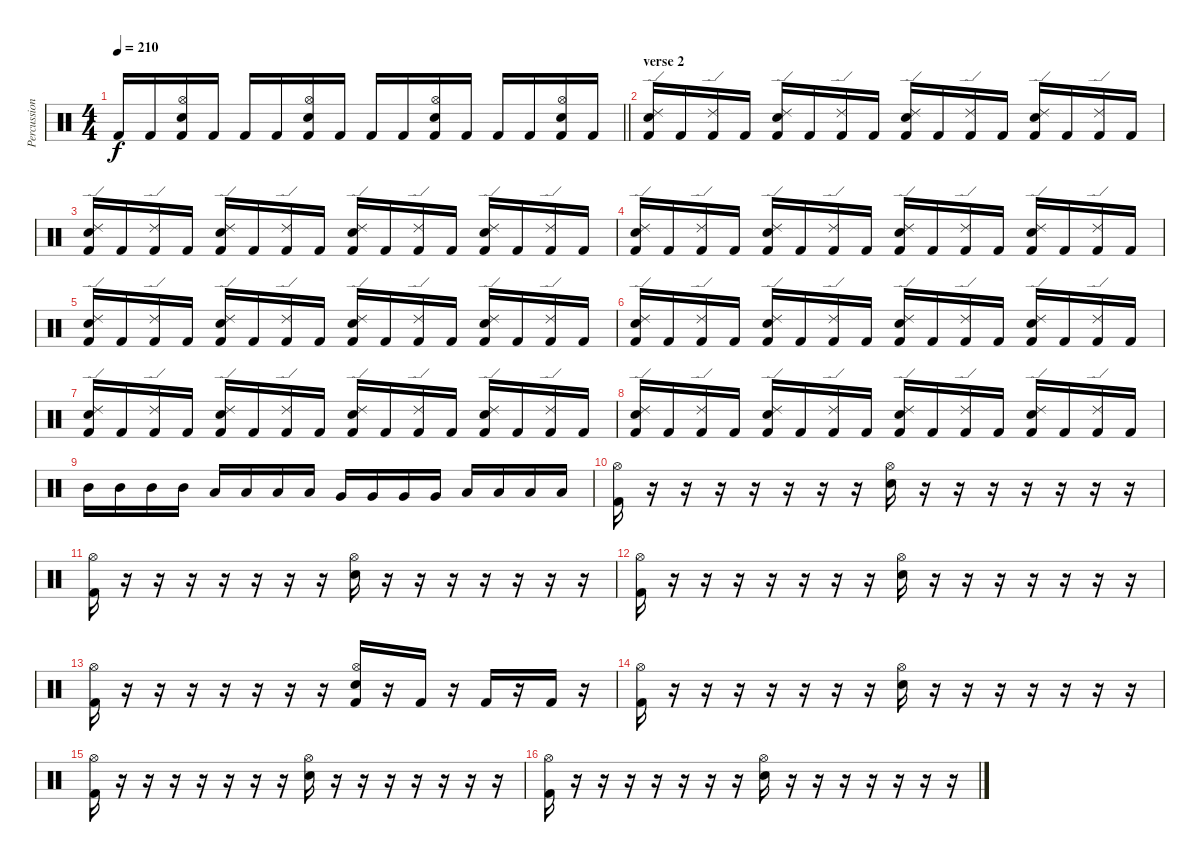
\track ("Percussion" "Percussion") {instrument percussion}
\staff {score}
\articulation defaults
\ts (4 4)
\tempo 210
\clef neutral
\barLineRight lightlight
\ks c "Kick (hit) 2".16{dy f} "Kick (hit) 2".16
("Hi-Hat (open)" "Snare (hit) 2" "Kick (hit) 2").16 "Kick (hit) 2".16 "Kick (hit) 2".16 "Kick (hit) 2".16 ("Hi-Hat (open)" "Snare (hit) 2" "Kick (hit) 2").16 "Kick (hit) 2".16 "Kick (hit) 2".16 "Kick (hit) 2".16 ("Hi-Hat (open)" "Snare (hit) 2" "Kick (hit) 2").16 "Kick (hit) 2".16 "Kick (hit) 2".16 "Kick (hit) 2".16 ("Hi-Hat (open)" "Snare (hit) 2" "Kick (hit) 2").16 "Kick (hit) 2".16 |
\section ("" "verse 2")
("Ride (edge) 2" "Snare (hit) 2" "Kick (hit) 2").16 "Kick (hit) 2".16 ("Ride (edge) 2" "Kick (hit) 2").16 "Kick (hit) 2".16 ("Ride (edge) 2" "Snare (hit) 2" "Kick (hit) 2").16 "Kick (hit) 2".16 ("Ride (edge) 2" "Kick (hit) 2").16 "Kick (hit) 2".16 ("Ride (edge) 2" "Snare (hit) 2" "Kick (hit) 2").16 "Kick (hit) 2".16 ("Ride (edge) 2" "Kick (hit) 2").16 "Kick (hit) 2".16 ("Ride (edge) 2" "Snare (hit) 2" "Kick (hit) 2").16 "Kick (hit) 2".16 ("Ride (edge) 2" "Kick (hit) 2").16 "Kick (hit) 2".16 |
("Ride (edge) 2" "Snare (hit) 2" "Kick (hit) 2").16 "Kick (hit) 2".16 ("Ride (edge) 2" "Kick (hit) 2").16 "Kick (hit) 2".16 ("Ride (edge) 2" "Snare (hit) 2" "Kick (hit) 2").16 "Kick (hit) 2".16 ("Ride (edge) 2" "Kick (hit) 2").16 "Kick (hit) 2".16 ("Ride (edge) 2" "Snare (hit) 2" "Kick (hit) 2").16 "Kick (hit) 2".16 ("Ride (edge) 2" "Kick (hit) 2").16 "Kick (hit) 2".16 ("Ride (edge) 2" "Snare (hit) 2" "Kick (hit) 2").16 "Kick (hit) 2".16 ("Ride (edge) 2" "Kick (hit) 2").16 "Kick (hit) 2".16 |
("Ride (edge) 2" "Snare (hit) 2" "Kick (hit) 2").16 "Kick (hit) 2".16 ("Ride (edge) 2" "Kick (hit) 2").16 "Kick (hit) 2".16 ("Ride (edge) 2" "Snare (hit) 2" "Kick (hit) 2").16 "Kick (hit) 2".16 ("Ride (edge) 2" "Kick (hit) 2").16 "Kick (hit) 2".16 ("Ride (edge) 2" "Snare (hit) 2" "Kick (hit) 2").16 "Kick (hit) 2".16 ("Ride (edge) 2" "Kick (hit) 2").16 "Kick (hit) 2".16 ("Ride (edge) 2" "Snare (hit) 2" "Kick (hit) 2").16 "Kick (hit) 2".16 ("Ride (edge) 2" "Kick (hit) 2").16 "Kick (hit) 2".16 |
("Ride (edge) 2" "Snare (hit) 2" "Kick (hit) 2").16 "Kick (hit) 2".16 ("Ride (edge) 2" "Kick (hit) 2").16 "Kick (hit) 2".16 ("Ride (edge) 2" "Snare (hit) 2" "Kick (hit) 2").16 "Kick (hit) 2".16 ("Ride (edge) 2" "Kick (hit) 2").16 "Kick (hit) 2".16 ("Ride (edge) 2" "Snare (hit) 2" "Kick (hit) 2").16 "Kick (hit) 2".16 ("Ride (edge) 2" "Kick (hit) 2").16 "Kick (hit) 2".16 ("Ride (edge) 2" "Snare (hit) 2" "Kick (hit) 2").16 "Kick (hit) 2".16 ("Ride (edge) 2" "Kick (hit) 2").16 "Kick (hit) 2".16 |
("Ride (edge) 2" "Snare (hit) 2" "Kick (hit) 2").16 "Kick (hit) 2".16 ("Ride (edge) 2" "Kick (hit) 2").16 "Kick (hit) 2".16 ("Ride (edge) 2" "Snare (hit) 2" "Kick (hit) 2").16 "Kick (hit) 2".16 ("Ride (edge) 2" "Kick (hit) 2").16 "Kick (hit) 2".16 ("Ride (edge) 2" "Snare (hit) 2" "Kick (hit) 2").16 "Kick (hit) 2".16 ("Ride (edge) 2" "Kick (hit) 2").16 "Kick (hit) 2".16 ("Ride (edge) 2" "Snare (hit) 2" "Kick (hit) 2").16 "Kick (hit) 2".16 ("Ride (edge) 2" "Kick (hit) 2").16 "Kick (hit) 2".16 |
("Ride (edge) 2" "Snare (hit) 2" "Kick (hit) 2").16 "Kick (hit) 2".16 ("Ride (edge) 2" "Kick (hit) 2").16 "Kick (hit) 2".16 ("Ride (edge) 2" "Snare (hit) 2" "Kick (hit) 2").16 "Kick (hit) 2".16 ("Ride (edge) 2" "Kick (hit) 2").16 "Kick (hit) 2".16 ("Ride (edge) 2" "Snare (hit) 2" "Kick (hit) 2").16 "Kick (hit) 2".16 ("Ride (edge) 2" "Kick (hit) 2").16 "Kick (hit) 2".16 ("Ride (edge) 2" "Snare (hit) 2" "Kick (hit) 2").16 "Kick (hit) 2".16 ("Ride (edge) 2" "Kick (hit) 2").16 "Kick (hit) 2".16 |
("Ride (edge) 2" "Snare (hit) 2" "Kick (hit) 2").16 "Kick (hit) 2".16 ("Ride (edge) 2" "Kick (hit) 2").16 "Kick (hit) 2".16 ("Ride (edge) 2" "Snare (hit) 2" "Kick (hit) 2").16 "Kick (hit) 2".16 ("Ride (edge) 2" "Kick (hit) 2").16 "Kick (hit) 2".16 ("Ride (edge) 2" "Snare (hit) 2" "Kick (hit) 2").16 "Kick (hit) 2".16 ("Ride (edge) 2" "Kick (hit) 2").16 "Kick (hit) 2".16 ("Ride (edge) 2" "Snare (hit) 2" "Kick (hit) 2").16 "Kick (hit) 2".16 ("Ride (edge) 2" "Kick (hit) 2").16 "Kick (hit) 2".16 |
"Mid Tom (hit)".16 "Mid Tom (hit)".16 "Mid Tom (hit)".16 "Mid Tom (hit)".16 "Low Tom (hit)".16 "Low Tom (hit)".16 "Low Tom (hit)".16 "Low Tom (hit)".16 "Very Low Tom (hit)".16 "Very Low Tom (hit)".16 "Very Low Tom (hit)".16 "Very Low Tom (hit)".16 "Low Floor Tom (hit)".16 "Low Floor Tom (hit)".16 "Low Floor Tom (hit)".16 "Low Floor Tom (hit)".16 |
("Hi-Hat (open)" "Kick (hit) 2").16 r.16 r.16 r.16 r.16 r.16 r.16 r.16 ("Hi-Hat (open)" "Snare (hit) 2").16 r.16 r.16 r.16 r.16 r.16 r.16 r.16 |
("Hi-Hat (open)" "Kick (hit) 2").16 r.16 r.16 r.16 r.16 r.16 r.16 r.16 ("Hi-Hat (open)" "Snare (hit) 2").16 r.16 r.16 r.16 r.16 r.16 r.16 r.16 |
("Hi-Hat (open)" "Kick (hit) 2").16 r.16 r.16 r.16 r.16 r.16 r.16 r.16 ("Hi-Hat (open)" "Snare (hit) 2").16 r.16 r.16 r.16 r.16 r.16 r.16 r.16 |
("Hi-Hat (open)" "Kick (hit) 2").16 r.16 r.16 r.16 r.16 r.16 r.16 r.16 ("Hi-Hat (open)" "Snare (hit) 2" "Kick (hit) 2").16 r.16 "Kick (hit) 2".16 r.16 "Kick (hit) 2".16 r.16 "Kick (hit) 2".16 r.16 |
("Hi-Hat (open)" "Kick (hit) 2").16 r.16 r.16 r.16 r.16 r.16 r.16 r.16 ("Hi-Hat (open)" "Snare (hit) 2").16 r.16 r.16 r.16 r.16 r.16 r.16 r.16 |
("Hi-Hat (open)" "Kick (hit) 2").16 r.16 r.16 r.16 r.16 r.16 r.16 r.16 ("Hi-Hat (open)" "Snare (hit) 2").16 r.16 r.16 r.16 r.16 r.16 r.16 r.16 |
("Hi-Hat (open)" "Kick (hit) 2").16 r.16 r.16 r.16 r.16 r.16 r.16 r.16 ("Hi-Hat (open)" "Snare (hit) 2").16 r.16 r.16 r.16 r.16 r.16 r.16 r.16
